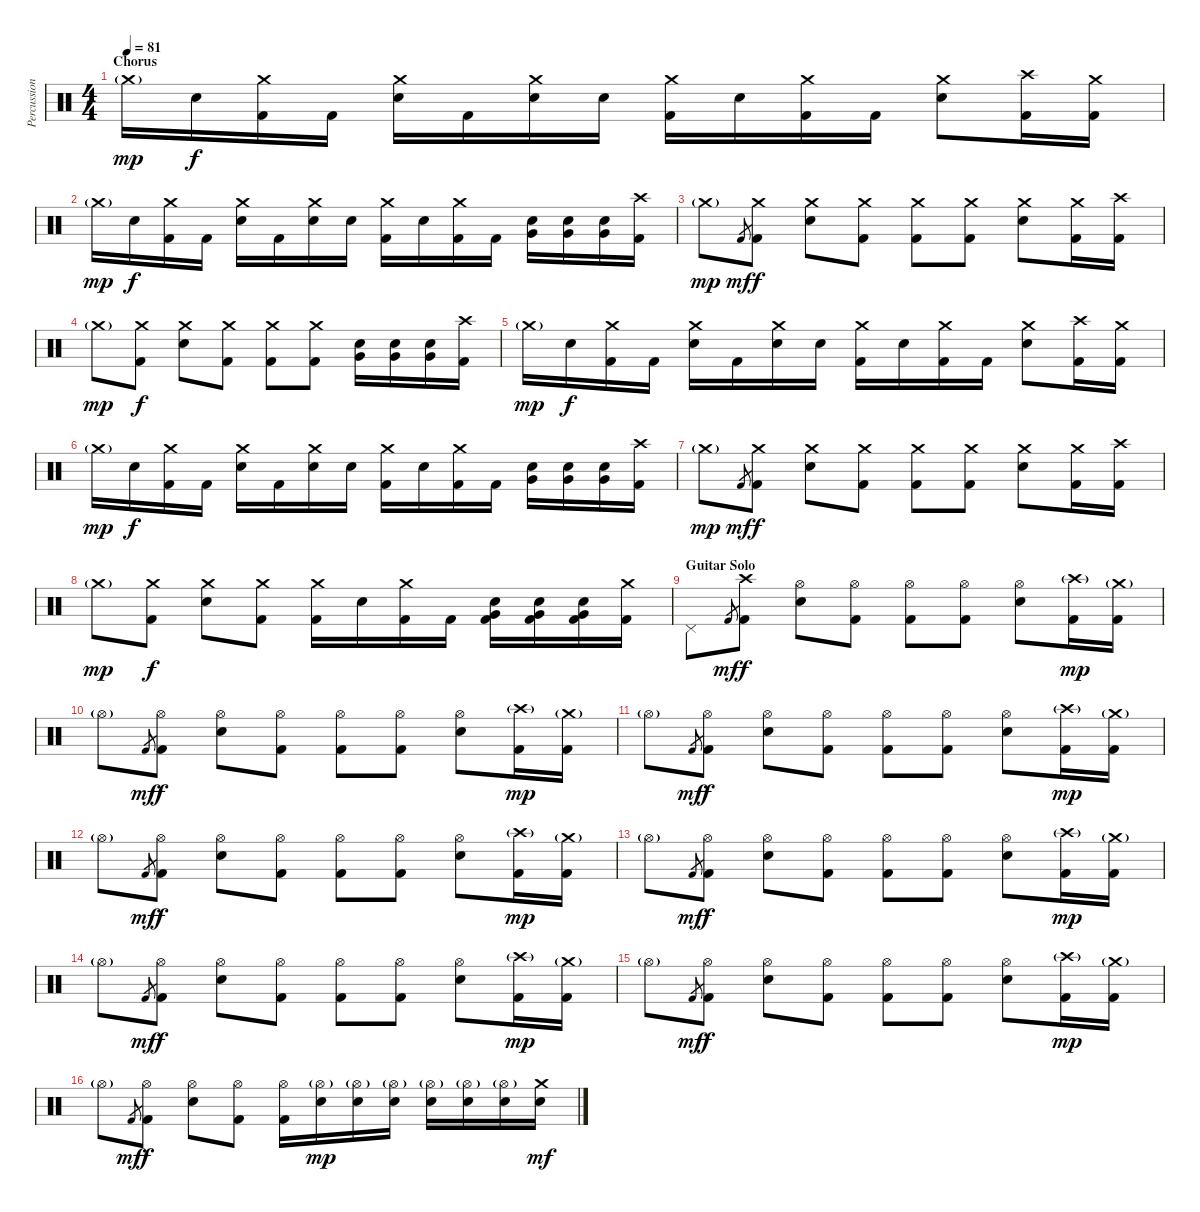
\track ("Percussion" "Percussion") {instrument percussion}
\staff {score}
\articulation defaults
\ts (4 4)
\section ("" "Chorus")
\tempo 81
\clef neutral
\ks c "Crash medium (hit)"{g}.16{dy mp} "Electric Snare (hit)".16{dy f}
("Crash medium (hit)" "Kick (hit) 2").16 "Kick (hit) 2".16 ("Crash medium (hit)" "Electric Snare (hit)").16 "Kick (hit) 2".16 ("Crash medium (hit)" "Electric Snare (hit)").16 "Electric Snare (hit)".16 ("Crash medium (hit)" "Kick (hit) 2").16 "Electric Snare (hit)".16 ("Crash medium (hit)" "Kick (hit) 2").16 "Kick (hit) 2".16 ("Crash medium (hit)" "Electric Snare (hit)").8 ("Crash high (hit)" "Kick (hit) 2").16 ("Crash medium (hit)" "Kick (hit) 2").16 |
"Crash medium (hit)"{g}.16{dy mp} "Electric Snare (hit)".16{dy f} ("Crash medium (hit)" "Kick (hit) 2").16 "Kick (hit) 2".16 ("Crash medium (hit)" "Electric Snare (hit)").16 "Kick (hit) 2".16 ("Crash medium (hit)" "Electric Snare (hit)").16 "Electric Snare (hit)".16 ("Crash medium (hit)" "Kick (hit) 2").16 "Electric Snare (hit)".16 ("Crash medium (hit)" "Kick (hit) 2").16 "Kick (hit) 2".16 ("Very Low Tom (hit)" "Electric Snare (hit)").16 ("Very Low Tom (hit)" "Electric Snare (hit)").16 ("Very Low Tom (hit)" "Electric Snare (hit)").16 ("Crash high (hit)" "Kick (hit) 2").16 |
"Crash medium (hit)"{g}.8{dy mp} "Kick (hit) 2".8{gr dy mf} ("Crash medium (hit)" "Kick (hit) 2").8{dy f} ("Crash medium (hit)" "Electric Snare (hit)").8 ("Crash medium (hit)" "Kick (hit) 2").8 ("Crash medium (hit)" "Kick (hit) 2").8 ("Crash medium (hit)" "Kick (hit) 2").8 ("Crash medium (hit)" "Electric Snare (hit)").8 ("Crash medium (hit)" "Kick (hit) 2").16 ("Crash high (hit)" "Kick (hit) 2").16 |
"Crash medium (hit)"{g}.8{dy mp} ("Crash medium (hit)" "Kick (hit) 2").8{dy f} ("Crash medium (hit)" "Electric Snare (hit)").8 ("Crash medium (hit)" "Kick (hit) 2").8 ("Crash medium (hit)" "Kick (hit) 2").8 ("Crash medium (hit)" "Kick (hit) 2").8 ("Very Low Tom (hit)" "Electric Snare (hit)").16 ("Very Low Tom (hit)" "Electric Snare (hit)").16 ("Very Low Tom (hit)" "Electric Snare (hit)").16 ("Crash high (hit)" "Kick (hit) 2").16 |
"Crash medium (hit)"{g}.16{dy mp} "Electric Snare (hit)".16{dy f} ("Crash medium (hit)" "Kick (hit) 2").16 "Kick (hit) 2".16 ("Crash medium (hit)" "Electric Snare (hit)").16 "Kick (hit) 2".16 ("Crash medium (hit)" "Electric Snare (hit)").16 "Electric Snare (hit)".16 ("Crash medium (hit)" "Kick (hit) 2").16 "Electric Snare (hit)".16 ("Crash medium (hit)" "Kick (hit) 2").16 "Kick (hit) 2".16 ("Crash medium (hit)" "Electric Snare (hit)").8 ("Crash high (hit)" "Kick (hit) 2").16 ("Crash medium (hit)" "Kick (hit) 2").16 |
"Crash medium (hit)"{g}.16{dy mp} "Electric Snare (hit)".16{dy f} ("Crash medium (hit)" "Kick (hit) 2").16 "Kick (hit) 2".16 ("Crash medium (hit)" "Electric Snare (hit)").16 "Kick (hit) 2".16 ("Crash medium (hit)" "Electric Snare (hit)").16 "Electric Snare (hit)".16 ("Crash medium (hit)" "Kick (hit) 2").16 "Electric Snare (hit)".16 ("Crash medium (hit)" "Kick (hit) 2").16 "Kick (hit) 2".16 ("Very Low Tom (hit)" "Electric Snare (hit)").16 ("Very Low Tom (hit)" "Electric Snare (hit)").16 ("Very Low Tom (hit)" "Electric Snare (hit)").16 ("Crash high (hit)" "Kick (hit) 2").16 |
"Crash medium (hit)"{g}.8{dy mp} "Kick (hit) 2".8{gr dy mf} ("Crash medium (hit)" "Kick (hit) 2").8{dy f} ("Crash medium (hit)" "Electric Snare (hit)").8 ("Crash medium (hit)" "Kick (hit) 2").8 ("Crash medium (hit)" "Kick (hit) 2").8 ("Crash medium (hit)" "Kick (hit) 2").8 ("Crash medium (hit)" "Electric Snare (hit)").8 ("Crash medium (hit)" "Kick (hit) 2").16 ("Crash high (hit)" "Kick (hit) 2").16 |
"Crash medium (hit)"{g}.8{dy mp} ("Crash medium (hit)" "Kick (hit) 2").8{dy f} ("Crash medium (hit)" "Electric Snare (hit)").8 ("Crash medium (hit)" "Kick (hit) 2").8 ("Crash medium (hit)" "Kick (hit) 2").16 "Electric Snare (hit)".16 ("Crash medium (hit)" "Kick (hit) 2").16 "Kick (hit) 2".16 ("Very Low Tom (hit)" "Electric Snare (hit)" "Kick (hit) 2").16 ("Very Low Tom (hit)" "Electric Snare (hit)" "Kick (hit) 2").16 ("Very Low Tom (hit)" "Electric Snare (hit)" "Kick (hit) 2").16 ("Crash medium (hit)" "Kick (hit) 2").16 |
\section ("" "Guitar Solo")
"Pedal Hi-Hat (hit)".8 "Kick (hit) 2".8{gr dy mf} ("Crash high (hit)" "Kick (hit) 2").8{dy f} ("Hi-Hat (open)" "Electric Snare (hit)").8 ("Hi-Hat (open)" "Kick (hit) 2").8 ("Hi-Hat (open)" "Kick (hit) 2").8 ("Hi-Hat (open)" "Kick (hit) 2").8 ("Hi-Hat (open)" "Electric Snare (hit)").8 ("Crash high (hit)"{g} "Kick (hit) 2").16{dy mp} ("Crash medium (hit)"{g} "Kick (hit) 2").16 |
"Hi-Hat (open)"{g}.8 "Kick (hit) 2".8{gr dy mf} ("Hi-Hat (open)" "Kick (hit) 2").8{dy f} ("Hi-Hat (open)" "Electric Snare (hit)").8 ("Hi-Hat (open)" "Kick (hit) 2").8 ("Hi-Hat (open)" "Kick (hit) 2").8 ("Hi-Hat (open)" "Kick (hit) 2").8 ("Hi-Hat (open)" "Electric Snare (hit)").8 ("Crash high (hit)"{g} "Kick (hit) 2").16{dy mp} ("Crash medium (hit)"{g} "Kick (hit) 2").16 |
"Hi-Hat (open)"{g}.8 "Kick (hit) 2".8{gr dy mf} ("Hi-Hat (open)" "Kick (hit) 2").8{dy f} ("Hi-Hat (open)" "Electric Snare (hit)").8 ("Hi-Hat (open)" "Kick (hit) 2").8 ("Hi-Hat (open)" "Kick (hit) 2").8 ("Hi-Hat (open)" "Kick (hit) 2").8 ("Hi-Hat (open)" "Electric Snare (hit)").8 ("Crash high (hit)"{g} "Kick (hit) 2").16{dy mp} ("Crash medium (hit)"{g} "Kick (hit) 2").16 |
"Hi-Hat (open)"{g}.8 "Kick (hit) 2".8{gr dy mf} ("Hi-Hat (open)" "Kick (hit) 2").8{dy f} ("Hi-Hat (open)" "Electric Snare (hit)").8 ("Hi-Hat (open)" "Kick (hit) 2").8 ("Hi-Hat (open)" "Kick (hit) 2").8 ("Hi-Hat (open)" "Kick (hit) 2").8 ("Hi-Hat (open)" "Electric Snare (hit)").8 ("Crash high (hit)"{g} "Kick (hit) 2").16{dy mp} ("Crash medium (hit)"{g} "Kick (hit) 2").16 |
"Hi-Hat (open)"{g}.8 "Kick (hit) 2".8{gr dy mf} ("Hi-Hat (open)" "Kick (hit) 2").8{dy f} ("Hi-Hat (open)" "Electric Snare (hit)").8 ("Hi-Hat (open)" "Kick (hit) 2").8 ("Hi-Hat (open)" "Kick (hit) 2").8 ("Hi-Hat (open)" "Kick (hit) 2").8 ("Hi-Hat (open)" "Electric Snare (hit)").8 ("Crash high (hit)"{g} "Kick (hit) 2").16{dy mp} ("Crash medium (hit)"{g} "Kick (hit) 2").16 |
"Hi-Hat (open)"{g}.8 "Kick (hit) 2".8{gr dy mf} ("Hi-Hat (open)" "Kick (hit) 2").8{dy f} ("Hi-Hat (open)" "Electric Snare (hit)").8 ("Hi-Hat (open)" "Kick (hit) 2").8 ("Hi-Hat (open)" "Kick (hit) 2").8 ("Hi-Hat (open)" "Kick (hit) 2").8 ("Hi-Hat (open)" "Electric Snare (hit)").8 ("Crash high (hit)"{g} "Kick (hit) 2").16{dy mp} ("Crash medium (hit)"{g} "Kick (hit) 2").16 |
"Hi-Hat (open)"{g}.8 "Kick (hit) 2".8{gr dy mf} ("Hi-Hat (open)" "Kick (hit) 2").8{dy f} ("Hi-Hat (open)" "Electric Snare (hit)").8 ("Hi-Hat (open)" "Kick (hit) 2").8 ("Hi-Hat (open)" "Kick (hit) 2").8 ("Hi-Hat (open)" "Kick (hit) 2").8 ("Hi-Hat (open)" "Electric Snare (hit)").8 ("Crash high (hit)"{g} "Kick (hit) 2").16{dy mp} ("Crash medium (hit)"{g} "Kick (hit) 2").16 |
"Hi-Hat (open)"{g}.8 "Kick (hit) 2".8{gr dy mf} ("Hi-Hat (open)" "Kick (hit) 2").8{dy f} ("Hi-Hat (open)" "Electric Snare (hit)").8 ("Hi-Hat (open)" "Kick (hit) 2").8 ("Hi-Hat (open)" "Kick (hit) 2").16 ("Hi-Hat (open)"{g} "Electric Snare (hit)").16{dy mp} ("Hi-Hat (open)"{g} "Electric Snare (hit)").16 ("Hi-Hat (open)"{g} "Electric Snare (hit)").16 ("Hi-Hat (open)"{g} "Electric Snare (hit)").16 ("Hi-Hat (open)"{g} "Electric Snare (hit)").16 ("Hi-Hat (open)"{g} "Electric Snare (hit)").16 ("Crash medium (hit)" "Electric Snare (hit)").16{dy mf}
